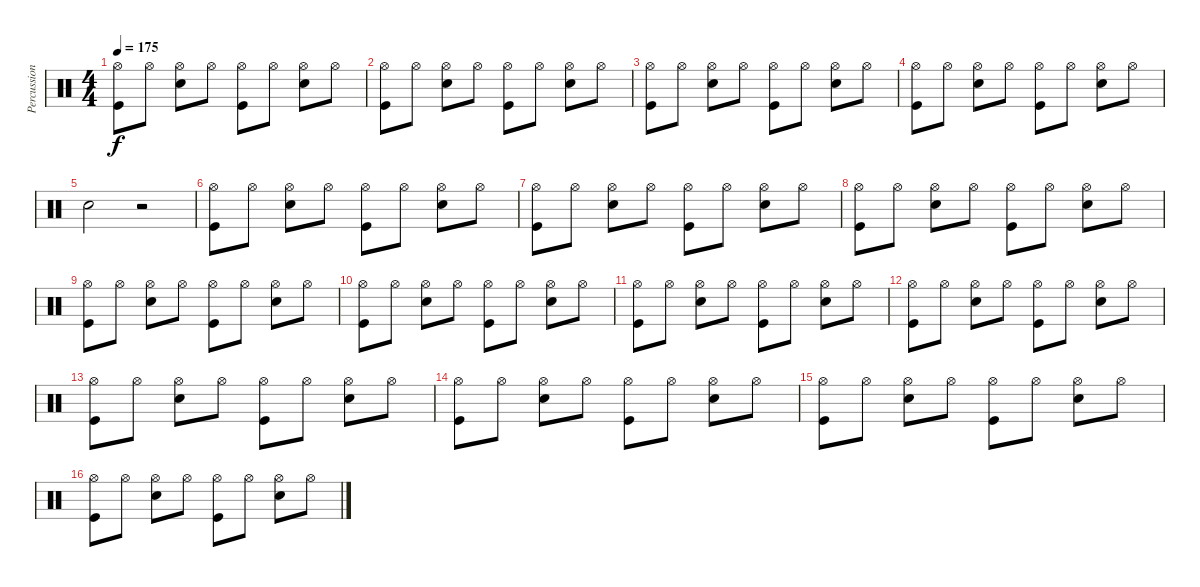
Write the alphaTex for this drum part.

\track ("Percussion" "Percussion") {instrument percussion}
\staff {score}
\articulation defaults
\ts (4 4)
\tempo 175
\clef neutral
\ks c
("Hi-Hat (open)" "Kick (hit)").8{dy f} "Hi-Hat (open)".8 ("Hi-Hat (open)" "Snare (hit) 2").8 "Hi-Hat (open)".8 ("Hi-Hat (open)" "Kick (hit)").8 "Hi-Hat (open)".8 ("Hi-Hat (open)" "Snare (hit) 2").8 "Hi-Hat (open)".8 |
("Hi-Hat (open)" "Kick (hit)").8 "Hi-Hat (open)".8 ("Hi-Hat (open)" "Snare (hit) 2").8 "Hi-Hat (open)".8 ("Hi-Hat (open)" "Kick (hit)").8 "Hi-Hat (open)".8 ("Hi-Hat (open)" "Snare (hit) 2").8 "Hi-Hat (open)".8 |
("Hi-Hat (open)" "Kick (hit)").8 "Hi-Hat (open)".8 ("Hi-Hat (open)" "Snare (hit) 2").8 "Hi-Hat (open)".8 ("Hi-Hat (open)" "Kick (hit)").8 "Hi-Hat (open)".8 ("Hi-Hat (open)" "Snare (hit) 2").8 "Hi-Hat (open)".8 |
("Hi-Hat (open)" "Kick (hit)").8 "Hi-Hat (open)".8 ("Hi-Hat (open)" "Snare (hit) 2").8 "Hi-Hat (open)".8 ("Hi-Hat (open)" "Kick (hit)").8 "Hi-Hat (open)".8 ("Hi-Hat (open)" "Snare (hit) 2").8 "Hi-Hat (open)".8 |
"Snare (hit) 2".2 r.2 |
("Hi-Hat (open)" "Kick (hit)").8 "Hi-Hat (open)".8 ("Hi-Hat (open)" "Snare (hit) 2").8 "Hi-Hat (open)".8 ("Hi-Hat (open)" "Kick (hit)").8 "Hi-Hat (open)".8 ("Hi-Hat (open)" "Snare (hit) 2").8 "Hi-Hat (open)".8 |
("Hi-Hat (open)" "Kick (hit)").8 "Hi-Hat (open)".8 ("Hi-Hat (open)" "Snare (hit) 2").8 "Hi-Hat (open)".8 ("Hi-Hat (open)" "Kick (hit)").8 "Hi-Hat (open)".8 ("Hi-Hat (open)" "Snare (hit) 2").8 "Hi-Hat (open)".8 |
("Hi-Hat (open)" "Kick (hit)").8 "Hi-Hat (open)".8 ("Hi-Hat (open)" "Snare (hit) 2").8 "Hi-Hat (open)".8 ("Hi-Hat (open)" "Kick (hit)").8 "Hi-Hat (open)".8 ("Hi-Hat (open)" "Snare (hit) 2").8 "Hi-Hat (open)".8 |
("Hi-Hat (open)" "Kick (hit)").8 "Hi-Hat (open)".8 ("Hi-Hat (open)" "Snare (hit) 2").8 "Hi-Hat (open)".8 ("Hi-Hat (open)" "Kick (hit)").8 "Hi-Hat (open)".8 ("Hi-Hat (open)" "Snare (hit) 2").8 "Hi-Hat (open)".8 |
("Hi-Hat (open)" "Kick (hit)").8 "Hi-Hat (open)".8 ("Hi-Hat (open)" "Snare (hit) 2").8 "Hi-Hat (open)".8 ("Hi-Hat (open)" "Kick (hit)").8 "Hi-Hat (open)".8 ("Hi-Hat (open)" "Snare (hit) 2").8 "Hi-Hat (open)".8 |
("Hi-Hat (open)" "Kick (hit)").8 "Hi-Hat (open)".8 ("Hi-Hat (open)" "Snare (hit) 2").8 "Hi-Hat (open)".8 ("Hi-Hat (open)" "Kick (hit)").8 "Hi-Hat (open)".8 ("Hi-Hat (open)" "Snare (hit) 2").8 "Hi-Hat (open)".8 |
("Hi-Hat (open)" "Kick (hit)").8 "Hi-Hat (open)".8 ("Hi-Hat (open)" "Snare (hit) 2").8 "Hi-Hat (open)".8 ("Hi-Hat (open)" "Kick (hit)").8 "Hi-Hat (open)".8 ("Hi-Hat (open)" "Snare (hit) 2").8 "Hi-Hat (open)".8 |
("Hi-Hat (open)" "Kick (hit)").8 "Hi-Hat (open)".8 ("Hi-Hat (open)" "Snare (hit) 2").8 "Hi-Hat (open)".8 ("Hi-Hat (open)" "Kick (hit)").8 "Hi-Hat (open)".8 ("Hi-Hat (open)" "Snare (hit) 2").8 "Hi-Hat (open)".8 |
("Hi-Hat (open)" "Kick (hit)").8 "Hi-Hat (open)".8 ("Hi-Hat (open)" "Snare (hit) 2").8 "Hi-Hat (open)".8 ("Hi-Hat (open)" "Kick (hit)").8 "Hi-Hat (open)".8 ("Hi-Hat (open)" "Snare (hit) 2").8 "Hi-Hat (open)".8 |
("Hi-Hat (open)" "Kick (hit)").8 "Hi-Hat (open)".8 ("Hi-Hat (open)" "Snare (hit) 2").8 "Hi-Hat (open)".8 ("Hi-Hat (open)" "Kick (hit)").8 "Hi-Hat (open)".8 ("Hi-Hat (open)" "Snare (hit) 2").8 "Hi-Hat (open)".8 |
("Hi-Hat (open)" "Kick (hit)").8 "Hi-Hat (open)".8 ("Hi-Hat (open)" "Snare (hit) 2").8 "Hi-Hat (open)".8 ("Hi-Hat (open)" "Kick (hit)").8 "Hi-Hat (open)".8 ("Hi-Hat (open)" "Snare (hit) 2").8 "Hi-Hat (open)".8
